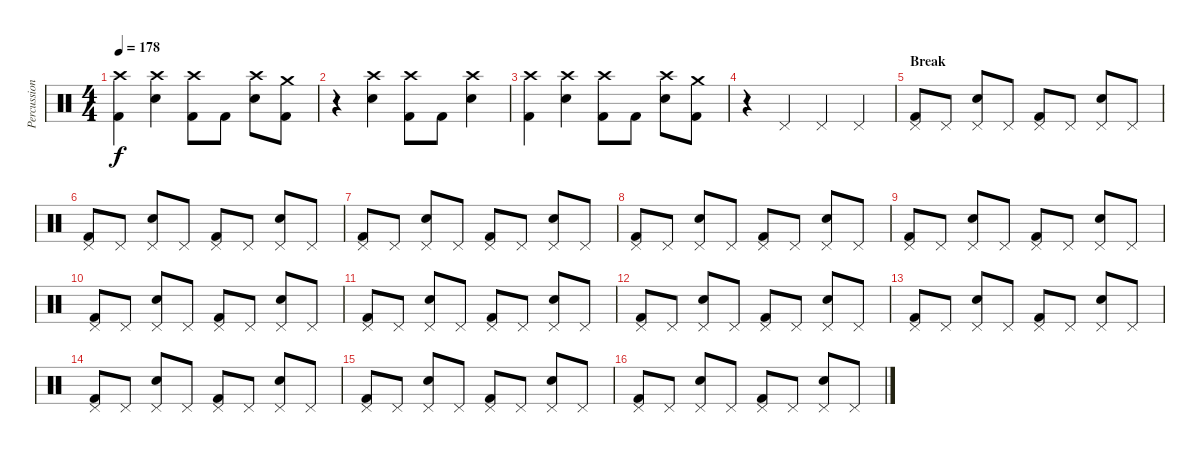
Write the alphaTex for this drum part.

\track ("Percussion" "Percussion") {instrument percussion}
\staff {score}
\articulation defaults
\ts (4 4)
\tempo 178
\clef neutral
\ks c
("Crash high (hit)" "Kick (hit) 2").4{dy f} ("Crash high (hit)" "Snare (hit) 2").4 ("Crash high (hit)" "Kick (hit) 2").8 "Kick (hit) 2".8 ("Crash high (hit)" "Snare (hit) 2").8 ("Crash medium (hit)" "Kick (hit) 2").8 |
r.4 ("Crash high (hit)" "Snare (hit) 2").4 ("Crash high (hit)" "Kick (hit) 2").8 "Kick (hit) 2".8 ("Crash high (hit)" "Snare (hit) 2").4 |
("Crash high (hit)" "Kick (hit) 2").4 ("Crash high (hit)" "Snare (hit) 2").4 ("Crash high (hit)" "Kick (hit) 2").8 "Kick (hit) 2".8 ("Crash high (hit)" "Snare (hit) 2").8 ("Crash medium (hit)" "Kick (hit) 2").8 |
r.4 "Pedal Hi-Hat (hit)".4 "Pedal Hi-Hat (hit)".4 "Pedal Hi-Hat (hit)".4 |
\section ("" "Break")
("Pedal Hi-Hat (hit)" "Kick (hit) 2").8 "Pedal Hi-Hat (hit)".8 ("Pedal Hi-Hat (hit)" "Snare (hit) 2").8 "Pedal Hi-Hat (hit)".8 ("Pedal Hi-Hat (hit)" "Kick (hit) 2").8 "Pedal Hi-Hat (hit)".8 ("Pedal Hi-Hat (hit)" "Snare (hit) 2").8 "Pedal Hi-Hat (hit)".8 |
("Pedal Hi-Hat (hit)" "Kick (hit) 2").8 "Pedal Hi-Hat (hit)".8 ("Pedal Hi-Hat (hit)" "Snare (hit) 2").8 "Pedal Hi-Hat (hit)".8 ("Pedal Hi-Hat (hit)" "Kick (hit) 2").8 "Pedal Hi-Hat (hit)".8 ("Pedal Hi-Hat (hit)" "Snare (hit) 2").8 "Pedal Hi-Hat (hit)".8 |
("Pedal Hi-Hat (hit)" "Kick (hit) 2").8 "Pedal Hi-Hat (hit)".8 ("Pedal Hi-Hat (hit)" "Snare (hit) 2").8 "Pedal Hi-Hat (hit)".8 ("Pedal Hi-Hat (hit)" "Kick (hit) 2").8 "Pedal Hi-Hat (hit)".8 ("Pedal Hi-Hat (hit)" "Snare (hit) 2").8 "Pedal Hi-Hat (hit)".8 |
("Pedal Hi-Hat (hit)" "Kick (hit) 2").8 "Pedal Hi-Hat (hit)".8 ("Pedal Hi-Hat (hit)" "Snare (hit) 2").8 "Pedal Hi-Hat (hit)".8 ("Pedal Hi-Hat (hit)" "Kick (hit) 2").8 "Pedal Hi-Hat (hit)".8 ("Pedal Hi-Hat (hit)" "Snare (hit) 2").8 "Pedal Hi-Hat (hit)".8 |
("Pedal Hi-Hat (hit)" "Kick (hit) 2").8 "Pedal Hi-Hat (hit)".8 ("Pedal Hi-Hat (hit)" "Snare (hit) 2").8 "Pedal Hi-Hat (hit)".8 ("Pedal Hi-Hat (hit)" "Kick (hit) 2").8 "Pedal Hi-Hat (hit)".8 ("Pedal Hi-Hat (hit)" "Snare (hit) 2").8 "Pedal Hi-Hat (hit)".8 |
("Pedal Hi-Hat (hit)" "Kick (hit) 2").8 "Pedal Hi-Hat (hit)".8 ("Pedal Hi-Hat (hit)" "Snare (hit) 2").8 "Pedal Hi-Hat (hit)".8 ("Pedal Hi-Hat (hit)" "Kick (hit) 2").8 "Pedal Hi-Hat (hit)".8 ("Pedal Hi-Hat (hit)" "Snare (hit) 2").8 "Pedal Hi-Hat (hit)".8 |
("Pedal Hi-Hat (hit)" "Kick (hit) 2").8 "Pedal Hi-Hat (hit)".8 ("Pedal Hi-Hat (hit)" "Snare (hit) 2").8 "Pedal Hi-Hat (hit)".8 ("Pedal Hi-Hat (hit)" "Kick (hit) 2").8 "Pedal Hi-Hat (hit)".8 ("Pedal Hi-Hat (hit)" "Snare (hit) 2").8 "Pedal Hi-Hat (hit)".8 |
("Pedal Hi-Hat (hit)" "Kick (hit) 2").8 "Pedal Hi-Hat (hit)".8 ("Pedal Hi-Hat (hit)" "Snare (hit) 2").8 "Pedal Hi-Hat (hit)".8 ("Pedal Hi-Hat (hit)" "Kick (hit) 2").8 "Pedal Hi-Hat (hit)".8 ("Pedal Hi-Hat (hit)" "Snare (hit) 2").8 "Pedal Hi-Hat (hit)".8 |
("Pedal Hi-Hat (hit)" "Kick (hit) 2").8 "Pedal Hi-Hat (hit)".8 ("Pedal Hi-Hat (hit)" "Snare (hit) 2").8 "Pedal Hi-Hat (hit)".8 ("Pedal Hi-Hat (hit)" "Kick (hit) 2").8 "Pedal Hi-Hat (hit)".8 ("Pedal Hi-Hat (hit)" "Snare (hit) 2").8 "Pedal Hi-Hat (hit)".8 |
("Pedal Hi-Hat (hit)" "Kick (hit) 2").8 "Pedal Hi-Hat (hit)".8 ("Pedal Hi-Hat (hit)" "Snare (hit) 2").8 "Pedal Hi-Hat (hit)".8 ("Pedal Hi-Hat (hit)" "Kick (hit) 2").8 "Pedal Hi-Hat (hit)".8 ("Pedal Hi-Hat (hit)" "Snare (hit) 2").8 "Pedal Hi-Hat (hit)".8 |
("Pedal Hi-Hat (hit)" "Kick (hit) 2").8 "Pedal Hi-Hat (hit)".8 ("Pedal Hi-Hat (hit)" "Snare (hit) 2").8 "Pedal Hi-Hat (hit)".8 ("Pedal Hi-Hat (hit)" "Kick (hit) 2").8 "Pedal Hi-Hat (hit)".8 ("Pedal Hi-Hat (hit)" "Snare (hit) 2").8 "Pedal Hi-Hat (hit)".8 |
("Pedal Hi-Hat (hit)" "Kick (hit) 2").8 "Pedal Hi-Hat (hit)".8 ("Pedal Hi-Hat (hit)" "Snare (hit) 2").8 "Pedal Hi-Hat (hit)".8 ("Pedal Hi-Hat (hit)" "Kick (hit) 2").8 "Pedal Hi-Hat (hit)".8 ("Pedal Hi-Hat (hit)" "Snare (hit) 2").8 "Pedal Hi-Hat (hit)".8
